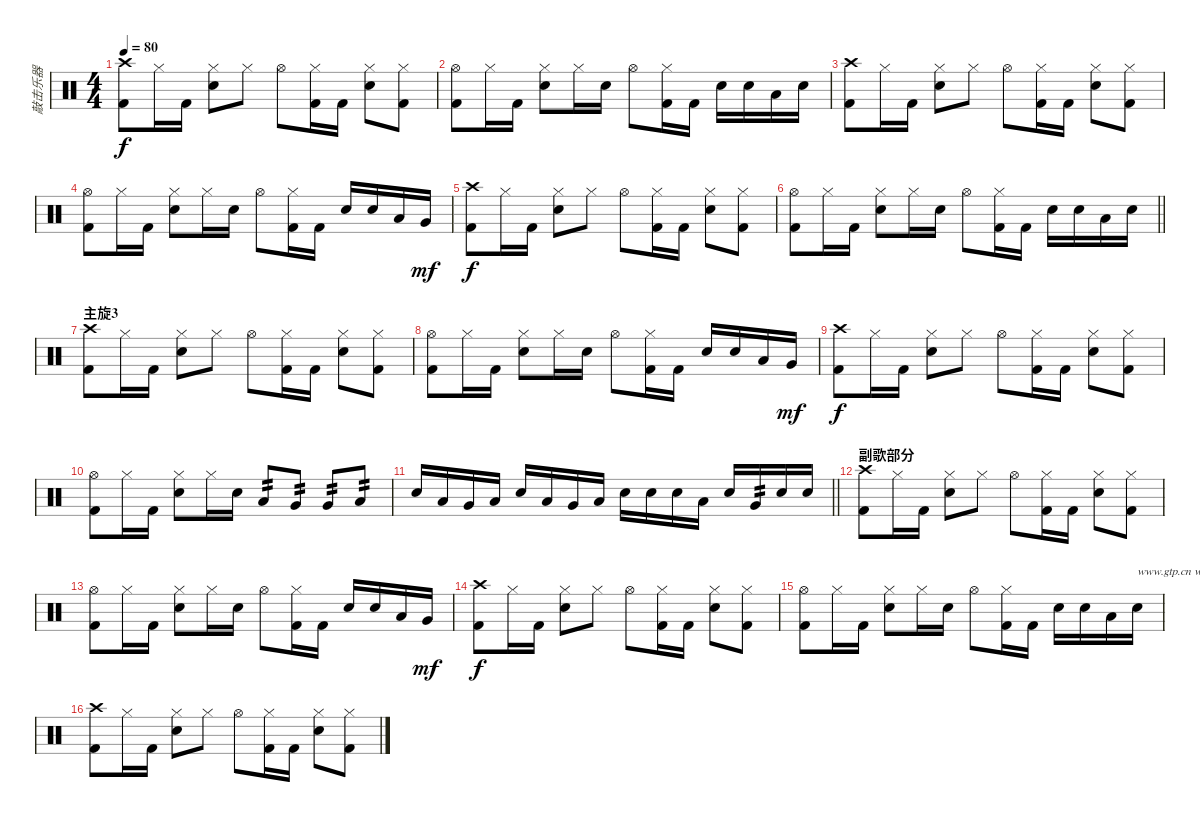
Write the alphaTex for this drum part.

\track ("敲击乐器" "敲击乐器") {instrument percussion}
\staff {score}
\articulation defaults
\ts (4 4)
\tempo 80
\clef neutral
\ks c
("Crash high (hit)" "Kick (hit) 2").8{dy f} "Hi-Hat (closed)".16 "Kick (hit) 2".16 ("Hi-Hat (closed)" "Snare (hit) 2").8 "Hi-Hat (closed)".8 "Hi-Hat (open)".8 ("Hi-Hat (closed)" "Kick (hit) 2").16 "Kick (hit) 2".16 ("Hi-Hat (closed)" "Snare (hit) 2").8 ("Hi-Hat (closed)" "Kick (hit) 2").8 |
("Hi-Hat (open)" "Kick (hit) 2").8 "Hi-Hat (closed)".16 "Kick (hit) 2".16 ("Hi-Hat (closed)" "Snare (hit) 2").8 "Hi-Hat (closed)".16 "Snare (hit) 2".16 "Hi-Hat (open)".8 ("Hi-Hat (closed)" "Kick (hit) 2").16 "Kick (hit) 2".16 "Snare (hit) 2".16 "Snare (hit) 2".16 "Low Tom (hit)".16 "Snare (hit) 2".16 |
("Crash high (hit)" "Kick (hit) 2").8 "Hi-Hat (closed)".16 "Kick (hit) 2".16 ("Hi-Hat (closed)" "Snare (hit) 2").8 "Hi-Hat (closed)".8 "Hi-Hat (open)".8 ("Hi-Hat (closed)" "Kick (hit) 2").16 "Kick (hit) 2".16 ("Hi-Hat (closed)" "Snare (hit) 2").8 ("Hi-Hat (closed)" "Kick (hit) 2").8 |
("Hi-Hat (open)" "Kick (hit) 2").8 "Hi-Hat (closed)".16 "Kick (hit) 2".16 ("Hi-Hat (closed)" "Snare (hit) 2").8 "Hi-Hat (closed)".16 "Snare (hit) 2".16 "Hi-Hat (open)".8 ("Hi-Hat (closed)" "Kick (hit) 2").16 "Kick (hit) 2".16 "Snare (hit) 2".16 "Snare (hit) 2".16 "Low Tom (hit)".16 "Very Low Tom (hit)".16{dy mf} |
("Crash high (hit)" "Kick (hit) 2").8{dy f} "Hi-Hat (closed)".16 "Kick (hit) 2".16 ("Hi-Hat (closed)" "Snare (hit) 2").8 "Hi-Hat (closed)".8 "Hi-Hat (open)".8 ("Hi-Hat (closed)" "Kick (hit) 2").16 "Kick (hit) 2".16 ("Hi-Hat (closed)" "Snare (hit) 2").8 ("Hi-Hat (closed)" "Kick (hit) 2").8 |
\barLineRight lightlight
("Hi-Hat (open)" "Kick (hit) 2").8 "Hi-Hat (closed)".16 "Kick (hit) 2".16 ("Hi-Hat (closed)" "Snare (hit) 2").8 "Hi-Hat (closed)".16 "Snare (hit) 2".16 "Hi-Hat (open)".8 ("Hi-Hat (closed)" "Kick (hit) 2").16 "Kick (hit) 2".16 "Snare (hit) 2".16 "Snare (hit) 2".16 "Low Tom (hit)".16 "Snare (hit) 2".16 |
\section ("" "主旋3")
("Crash high (hit)" "Kick (hit) 2").8 "Hi-Hat (closed)".16 "Kick (hit) 2".16 ("Hi-Hat (closed)" "Snare (hit) 2").8 "Hi-Hat (closed)".8 "Hi-Hat (open)".8 ("Hi-Hat (closed)" "Kick (hit) 2").16 "Kick (hit) 2".16 ("Hi-Hat (closed)" "Snare (hit) 2").8 ("Hi-Hat (closed)" "Kick (hit) 2").8 |
("Hi-Hat (open)" "Kick (hit) 2").8 "Hi-Hat (closed)".16 "Kick (hit) 2".16 ("Hi-Hat (closed)" "Snare (hit) 2").8 "Hi-Hat (closed)".16 "Snare (hit) 2".16 "Hi-Hat (open)".8 ("Hi-Hat (closed)" "Kick (hit) 2").16 "Kick (hit) 2".16 "Snare (hit) 2".16 "Snare (hit) 2".16 "Low Tom (hit)".16 "Very Low Tom (hit)".16{dy mf} |
("Crash high (hit)" "Kick (hit) 2").8{dy f} "Hi-Hat (closed)".16 "Kick (hit) 2".16 ("Hi-Hat (closed)" "Snare (hit) 2").8 "Hi-Hat (closed)".8 "Hi-Hat (open)".8 ("Hi-Hat (closed)" "Kick (hit) 2").16 "Kick (hit) 2".16 ("Hi-Hat (closed)" "Snare (hit) 2").8 ("Hi-Hat (closed)" "Kick (hit) 2").8 |
("Hi-Hat (open)" "Kick (hit) 2").8 "Hi-Hat (closed)".16 "Kick (hit) 2".16 ("Hi-Hat (closed)" "Snare (hit) 2").8 "Hi-Hat (closed)".16 "Snare (hit) 2".16 "Low Tom (hit)".8{tp 2} "Very Low Tom (hit)".8{tp 2} "Very Low Tom (hit)".8{tp 2} "Low Tom (hit)".8{tp 2} |
\barLineRight lightlight "Snare (hit) 2".16 "Low Tom (hit)".16 "Very Low Tom (hit)".16 "Low Floor Tom (hit)".16 "Snare (hit) 2".16 "Low Tom (hit)".16 "Very Low Tom (hit)".16 "Low Floor Tom (hit)".16 "Snare (hit) 2".16 "Snare (hit) 2".16 "Snare (hit) 2".16 "Low Floor Tom (hit)".16 "Snare (hit) 2".16 "Very Low Tom (hit)".16{tp 2} "Snare (hit) 2".16 "Snare (hit) 2".16
|
\section ("" "副歌部分")
("Crash high (hit)" "Kick (hit) 2").8 "Hi-Hat (closed)".16 "Kick (hit) 2".16 ("Hi-Hat (closed)" "Snare (hit) 2").8 "Hi-Hat (closed)".8 "Hi-Hat (open)".8 ("Hi-Hat (closed)" "Kick (hit) 2").16 "Kick (hit) 2".16 ("Hi-Hat (closed)" "Snare (hit) 2").8 ("Hi-Hat (closed)" "Kick (hit) 2").8 |
("Hi-Hat (open)" "Kick (hit) 2").8 "Hi-Hat (closed)".16 "Kick (hit) 2".16 ("Hi-Hat (closed)" "Snare (hit) 2").8 "Hi-Hat (closed)".16 "Snare (hit) 2".16 "Hi-Hat (open)".8 ("Hi-Hat (closed)" "Kick (hit) 2").16 "Kick (hit) 2".16 "Snare (hit) 2".16 "Snare (hit) 2".16 "Low Tom (hit)".16 "Very Low Tom (hit)".16{dy mf} |
("Crash high (hit)" "Kick (hit) 2").8{dy f} "Hi-Hat (closed)".16 "Kick (hit) 2".16 ("Hi-Hat (closed)" "Snare (hit) 2").8 "Hi-Hat (closed)".8 "Hi-Hat (open)".8 ("Hi-Hat (closed)" "Kick (hit) 2").16 "Kick (hit) 2".16 ("Hi-Hat (closed)" "Snare (hit) 2").8 ("Hi-Hat (closed)" "Kick (hit) 2").8 |
("Hi-Hat (open)" "Kick (hit) 2").8 "Hi-Hat (closed)".16 "Kick (hit) 2".16 ("Hi-Hat (closed)" "Snare (hit) 2").8 "Hi-Hat (closed)".16 "Snare (hit) 2".16 "Hi-Hat (open)".8 ("Hi-Hat (closed)" "Kick (hit) 2").16 "Kick (hit) 2".16 "Snare (hit) 2".16 "Snare (hit) 2".16 "Low Tom (hit)".16 "Snare (hit) 2".16{txt "www.gtp.cn www.51gtp.com联合为您提供优秀的GTP!"} |
("Crash high (hit)" "Kick (hit) 2").8 "Hi-Hat (closed)".16 "Kick (hit) 2".16 ("Hi-Hat (closed)" "Snare (hit) 2").8 "Hi-Hat (closed)".8 "Hi-Hat (open)".8 ("Hi-Hat (closed)" "Kick (hit) 2").16 "Kick (hit) 2".16 ("Hi-Hat (closed)" "Snare (hit) 2").8 ("Hi-Hat (closed)" "Kick (hit) 2").8
